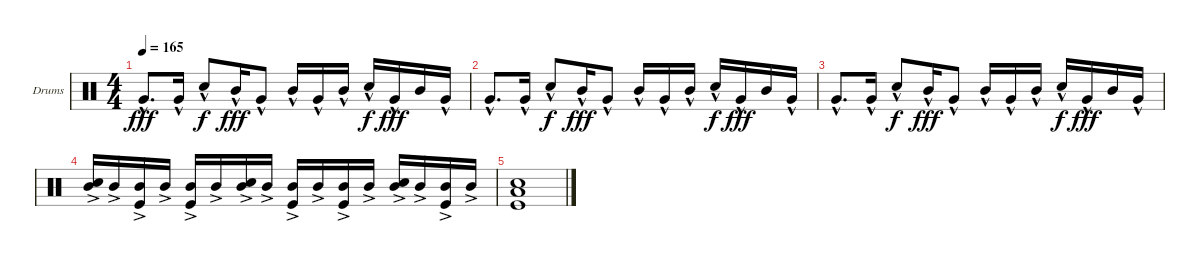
\defaultSystemsLayout 4
\bracketExtendMode groupsimilarinstruments
\firstSystemTrackNameOrientation horizontal
\otherSystemsTrackNameOrientation horizontal
\track ("Helders" "Drums") {instrument percussion}
\staff {score}
\articulation defaults
\ts (4 4)
\tempo 165
\clef neutral
\ks c "Very Low Tom (hit)"{hac}.8{d dy fff} "Very Low Tom (hit)"{hac}.16 "Snare (hit) 2"{hac}.8{dy f} "Mid Tom (hit)"{hac}.16{dy fff} "Very Low Tom (hit)"{hac}.8 "Mid Tom (hit)"{hac}.16 "Very Low Tom (hit)"{hac}.16 "Mid Tom (hit)"{hac}.16 "Snare (hit) 2"{hac}.16{dy f} "Very Low Tom (hit)"{hac}.16{dy fff} "Mid Tom (hit)".16 "Very Low Tom (hit)"{hac}.16
|
"Very Low Tom (hit)"{hac}.8{d} "Very Low Tom (hit)"{hac}.16 "Snare (hit) 2"{hac}.8{dy f} "Mid Tom (hit)"{hac}.16{dy fff} "Very Low Tom (hit)"{hac}.8 "Mid Tom (hit)"{hac}.16 "Very Low Tom (hit)"{hac}.16 "Mid Tom (hit)"{hac}.16 "Snare (hit) 2"{hac}.16{dy f} "Very Low Tom (hit)"{hac}.16{dy fff} "Mid Tom (hit)".16 "Very Low Tom (hit)"{hac}.16 |
"Very Low Tom (hit)"{hac}.8{d} "Very Low Tom (hit)"{hac}.16 "Snare (hit) 2"{hac}.8{dy f} "Mid Tom (hit)"{hac}.16{dy fff} "Very Low Tom (hit)"{hac}.8 "Mid Tom (hit)"{hac}.16 "Very Low Tom (hit)"{hac}.16 "Mid Tom (hit)"{hac}.16 "Snare (hit) 2"{hac}.16{dy f} "Very Low Tom (hit)"{hac}.16{dy fff} "Mid Tom (hit)".16 "Very Low Tom (hit)"{hac}.16 |
("Snare (hit) 2"{ac} "Mid Tom (hit)"{ac}).16 "Mid Tom (hit)"{ac}.16 ("Kick (hit)"{ac} "Mid Tom (hit)"{ac}).16 "Mid Tom (hit)"{ac}.16 ("Kick (hit)"{ac} "Mid Tom (hit)"{ac}).16 "Mid Tom (hit)"{ac}.16 ("Snare (hit) 2"{ac} "Mid Tom (hit)"{ac}).16 "Mid Tom (hit)"{ac}.16 ("Kick (hit)"{ac} "Mid Tom (hit)"{ac}).16 "Mid Tom (hit)"{ac}.16 ("Kick (hit)"{ac} "Mid Tom (hit)"{ac}).16 "Mid Tom (hit)"{ac}.16 ("Snare (hit) 2"{ac} "Mid Tom (hit)"{ac}).16 "Mid Tom (hit)"{ac}.16 ("Kick (hit)"{ac} "Mid Tom (hit)"{ac}).16 "Mid Tom (hit)"{ac}.16 |
("Kick (hit)" "Low Tom (hit)" "Snare (hit) 2").1
